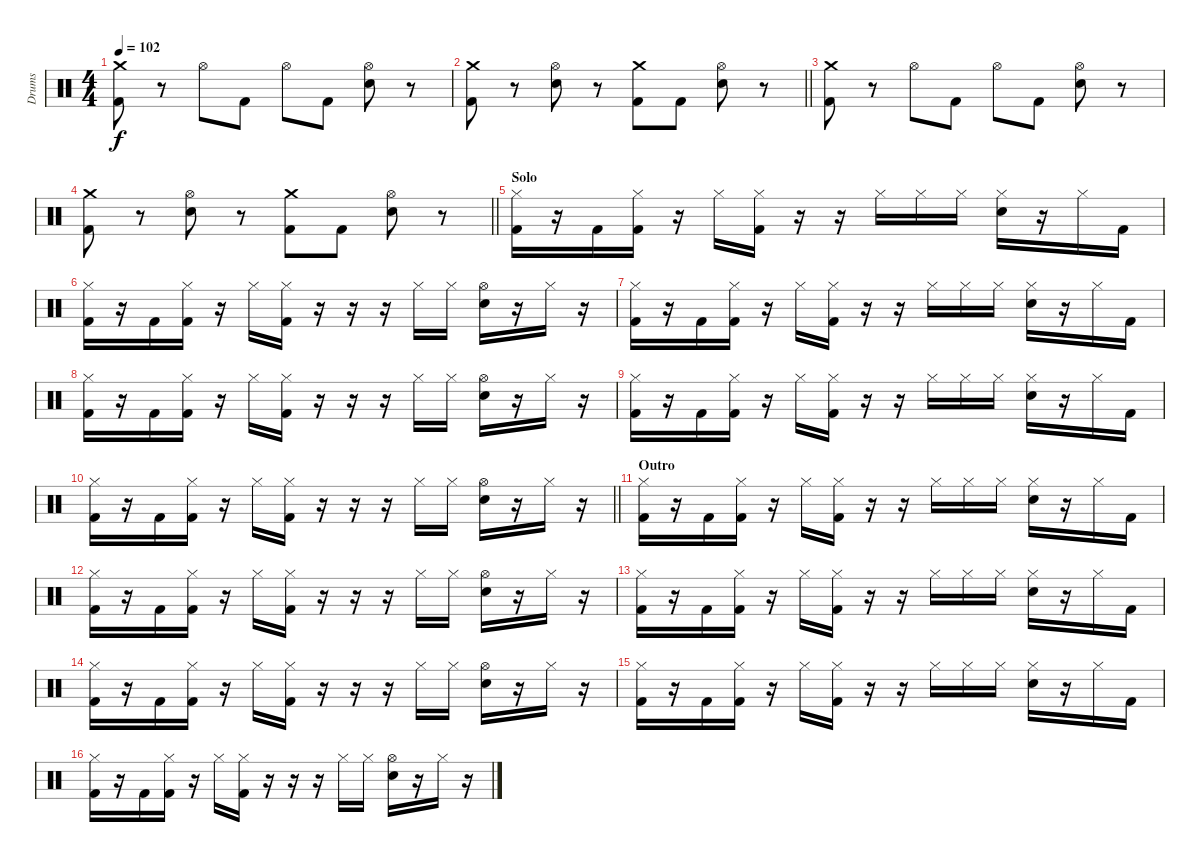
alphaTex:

\track ("Drums" "Drums") {instrument percussion}
\staff {score}
\articulation defaults
\ts (4 4)
\tempo 102
\clef neutral
\ks c
("Crash medium (hit)" "Kick (hit) 2").8{dy f} r.8 "Hi-Hat (open)".8 "Kick (hit) 2".8 "Hi-Hat (open)".8 "Kick (hit) 2".8 ("Hi-Hat (open)" "Electric Snare (hit)").8 r.8 |
\barLineRight lightlight
("Crash medium (hit)" "Kick (hit) 2").8 r.8 ("Hi-Hat (open)" "Electric Snare (hit)").8 r.8 ("Crash medium (hit)" "Kick (hit) 2").8 "Kick (hit) 2".8 ("Hi-Hat (open)" "Electric Snare (hit)").8 r.8 |
("Crash medium (hit)" "Kick (hit) 2").8 r.8 "Hi-Hat (open)".8 "Kick (hit) 2".8 "Hi-Hat (open)".8 "Kick (hit) 2".8 ("Hi-Hat (open)" "Electric Snare (hit)").8 r.8 |
\barLineRight lightlight
("Crash medium (hit)" "Kick (hit) 2").8 r.8 ("Hi-Hat (open)" "Electric Snare (hit)").8 r.8 ("Crash medium (hit)" "Kick (hit) 2").8 "Kick (hit) 2".8 ("Hi-Hat (open)" "Electric Snare (hit)").8 r.8 |
\section ("" "Solo")
("Hi-Hat (closed)" "Kick (hit) 2").16 r.16 "Kick (hit) 2".16 ("Hi-Hat (closed)" "Kick (hit) 2").16 r.16 "Hi-Hat (closed)".16 ("Hi-Hat (closed)" "Kick (hit) 2").16 r.16 r.16 "Hi-Hat (closed)".16 "Hi-Hat (closed)".16 "Hi-Hat (closed)".16 ("Hi-Hat (closed)" "Electric Snare (hit)").16 r.16 "Hi-Hat (closed)".16 "Kick (hit) 2".16 |
("Hi-Hat (closed)" "Kick (hit) 2").16 r.16 "Kick (hit) 2".16 ("Hi-Hat (closed)" "Kick (hit) 2").16 r.16 "Hi-Hat (closed)".16 ("Hi-Hat (closed)" "Kick (hit) 2").16 r.16 r.16 r.16 "Hi-Hat (closed)".16 "Hi-Hat (closed)".16 ("Hi-Hat (open)" "Electric Snare (hit)").16 r.16 "Hi-Hat (closed)".16 r.16 |
("Hi-Hat (closed)" "Kick (hit) 2").16 r.16 "Kick (hit) 2".16 ("Hi-Hat (closed)" "Kick (hit) 2").16 r.16 "Hi-Hat (closed)".16 ("Hi-Hat (closed)" "Kick (hit) 2").16 r.16 r.16 "Hi-Hat (closed)".16 "Hi-Hat (closed)".16 "Hi-Hat (closed)".16 ("Hi-Hat (closed)" "Electric Snare (hit)").16 r.16 "Hi-Hat (closed)".16 "Kick (hit) 2".16 |
("Hi-Hat (closed)" "Kick (hit) 2").16 r.16 "Kick (hit) 2".16 ("Hi-Hat (closed)" "Kick (hit) 2").16 r.16 "Hi-Hat (closed)".16 ("Hi-Hat (closed)" "Kick (hit) 2").16 r.16 r.16 r.16 "Hi-Hat (closed)".16 "Hi-Hat (closed)".16 ("Hi-Hat (open)" "Electric Snare (hit)").16 r.16 "Hi-Hat (closed)".16 r.16 |
("Hi-Hat (closed)" "Kick (hit) 2").16 r.16 "Kick (hit) 2".16 ("Hi-Hat (closed)" "Kick (hit) 2").16 r.16 "Hi-Hat (closed)".16 ("Hi-Hat (closed)" "Kick (hit) 2").16 r.16 r.16 "Hi-Hat (closed)".16 "Hi-Hat (closed)".16 "Hi-Hat (closed)".16 ("Hi-Hat (closed)" "Electric Snare (hit)").16 r.16 "Hi-Hat (closed)".16 "Kick (hit) 2".16 |
\barLineRight lightlight
("Hi-Hat (closed)" "Kick (hit) 2").16 r.16 "Kick (hit) 2".16 ("Hi-Hat (closed)" "Kick (hit) 2").16 r.16 "Hi-Hat (closed)".16 ("Hi-Hat (closed)" "Kick (hit) 2").16 r.16 r.16 r.16 "Hi-Hat (closed)".16 "Hi-Hat (closed)".16 ("Hi-Hat (open)" "Electric Snare (hit)").16 r.16 "Hi-Hat (closed)".16 r.16 |
\section ("" "Outro")
("Hi-Hat (closed)" "Kick (hit) 2").16 r.16 "Kick (hit) 2".16 ("Hi-Hat (closed)" "Kick (hit) 2").16 r.16 "Hi-Hat (closed)".16 ("Hi-Hat (closed)" "Kick (hit) 2").16 r.16 r.16 "Hi-Hat (closed)".16 "Hi-Hat (closed)".16 "Hi-Hat (closed)".16 ("Hi-Hat (closed)" "Electric Snare (hit)").16 r.16 "Hi-Hat (closed)".16 "Kick (hit) 2".16 |
("Hi-Hat (closed)" "Kick (hit) 2").16 r.16 "Kick (hit) 2".16 ("Hi-Hat (closed)" "Kick (hit) 2").16 r.16 "Hi-Hat (closed)".16 ("Hi-Hat (closed)" "Kick (hit) 2").16 r.16 r.16 r.16 "Hi-Hat (closed)".16 "Hi-Hat (closed)".16 ("Hi-Hat (open)" "Electric Snare (hit)").16 r.16 "Hi-Hat (closed)".16 r.16 |
("Hi-Hat (closed)" "Kick (hit) 2").16 r.16 "Kick (hit) 2".16 ("Hi-Hat (closed)" "Kick (hit) 2").16 r.16 "Hi-Hat (closed)".16 ("Hi-Hat (closed)" "Kick (hit) 2").16 r.16 r.16 "Hi-Hat (closed)".16 "Hi-Hat (closed)".16 "Hi-Hat (closed)".16 ("Hi-Hat (closed)" "Electric Snare (hit)").16 r.16 "Hi-Hat (closed)".16 "Kick (hit) 2".16 |
("Hi-Hat (closed)" "Kick (hit) 2").16 r.16 "Kick (hit) 2".16 ("Hi-Hat (closed)" "Kick (hit) 2").16 r.16 "Hi-Hat (closed)".16 ("Hi-Hat (closed)" "Kick (hit) 2").16 r.16 r.16 r.16 "Hi-Hat (closed)".16 "Hi-Hat (closed)".16 ("Hi-Hat (open)" "Electric Snare (hit)").16 r.16 "Hi-Hat (closed)".16 r.16 |
("Hi-Hat (closed)" "Kick (hit) 2").16 r.16 "Kick (hit) 2".16 ("Hi-Hat (closed)" "Kick (hit) 2").16 r.16 "Hi-Hat (closed)".16 ("Hi-Hat (closed)" "Kick (hit) 2").16 r.16 r.16 "Hi-Hat (closed)".16 "Hi-Hat (closed)".16 "Hi-Hat (closed)".16 ("Hi-Hat (closed)" "Electric Snare (hit)").16 r.16 "Hi-Hat (closed)".16 "Kick (hit) 2".16 |
("Hi-Hat (closed)" "Kick (hit) 2").16 r.16 "Kick (hit) 2".16 ("Hi-Hat (closed)" "Kick (hit) 2").16 r.16 "Hi-Hat (closed)".16 ("Hi-Hat (closed)" "Kick (hit) 2").16 r.16 r.16 r.16 "Hi-Hat (closed)".16 "Hi-Hat (closed)".16 ("Hi-Hat (open)" "Electric Snare (hit)").16 r.16 "Hi-Hat (closed)".16 r.16
